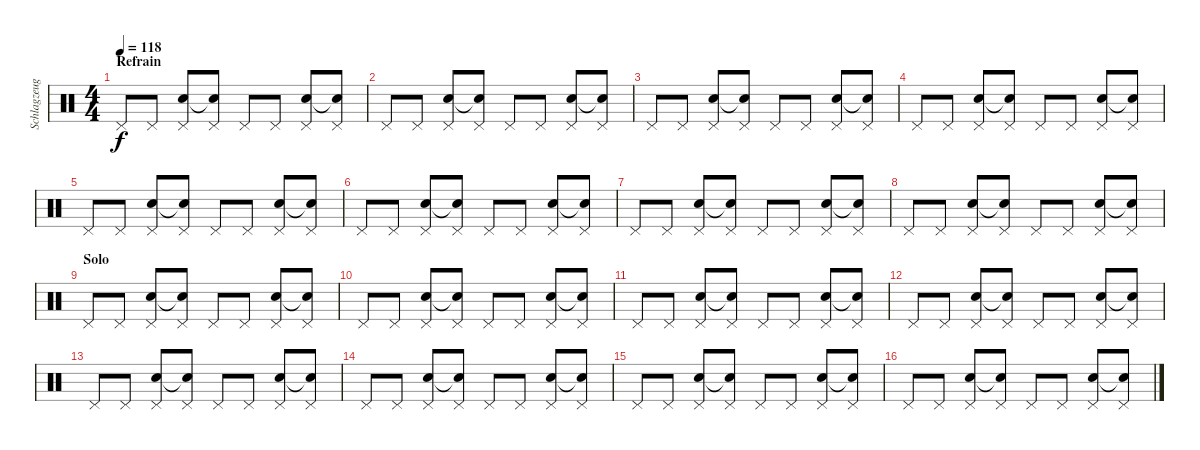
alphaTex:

\track ("Schlagzeug" "Schlagzeug") {instrument percussion}
\staff {score}
\articulation defaults
\ts (4 4)
\section ("" "Refrain")
\tempo 118
\clef neutral
\ks c "Pedal Hi-Hat (hit)".8{dy f} "Pedal Hi-Hat (hit)".8
("Pedal Hi-Hat (hit)" "Snare (hit) 2").8 ("Pedal Hi-Hat (hit)" "Snare (hit) 2"{t}).8 "Pedal Hi-Hat (hit)".8 "Pedal Hi-Hat (hit)".8 ("Pedal Hi-Hat (hit)" "Snare (hit) 2").8 ("Pedal Hi-Hat (hit)" "Snare (hit)"{t}).8 |
"Pedal Hi-Hat (hit)".8 "Pedal Hi-Hat (hit)".8 ("Pedal Hi-Hat (hit)" "Snare (hit) 2").8 ("Pedal Hi-Hat (hit)" "Snare (hit) 2"{t}).8 "Pedal Hi-Hat (hit)".8 "Pedal Hi-Hat (hit)".8 ("Pedal Hi-Hat (hit)" "Snare (hit) 2").8 ("Pedal Hi-Hat (hit)" "Snare (hit)"{t}).8 |
"Pedal Hi-Hat (hit)".8 "Pedal Hi-Hat (hit)".8 ("Pedal Hi-Hat (hit)" "Snare (hit) 2").8 ("Pedal Hi-Hat (hit)" "Snare (hit) 2"{t}).8 "Pedal Hi-Hat (hit)".8 "Pedal Hi-Hat (hit)".8 ("Pedal Hi-Hat (hit)" "Snare (hit) 2").8 ("Pedal Hi-Hat (hit)" "Snare (hit)"{t}).8 |
"Pedal Hi-Hat (hit)".8 "Pedal Hi-Hat (hit)".8 ("Pedal Hi-Hat (hit)" "Snare (hit) 2").8 ("Pedal Hi-Hat (hit)" "Snare (hit) 2"{t}).8 "Pedal Hi-Hat (hit)".8 "Pedal Hi-Hat (hit)".8 ("Pedal Hi-Hat (hit)" "Snare (hit) 2").8 ("Pedal Hi-Hat (hit)" "Snare (hit)"{t}).8 |
"Pedal Hi-Hat (hit)".8 "Pedal Hi-Hat (hit)".8 ("Pedal Hi-Hat (hit)" "Snare (hit) 2").8 ("Pedal Hi-Hat (hit)" "Snare (hit) 2"{t}).8 "Pedal Hi-Hat (hit)".8 "Pedal Hi-Hat (hit)".8 ("Pedal Hi-Hat (hit)" "Snare (hit) 2").8 ("Pedal Hi-Hat (hit)" "Snare (hit)"{t}).8 |
"Pedal Hi-Hat (hit)".8 "Pedal Hi-Hat (hit)".8 ("Pedal Hi-Hat (hit)" "Snare (hit) 2").8 ("Pedal Hi-Hat (hit)" "Snare (hit) 2"{t}).8 "Pedal Hi-Hat (hit)".8 "Pedal Hi-Hat (hit)".8 ("Pedal Hi-Hat (hit)" "Snare (hit) 2").8 ("Pedal Hi-Hat (hit)" "Snare (hit)"{t}).8 |
"Pedal Hi-Hat (hit)".8 "Pedal Hi-Hat (hit)".8 ("Pedal Hi-Hat (hit)" "Snare (hit) 2").8 ("Pedal Hi-Hat (hit)" "Snare (hit) 2"{t}).8 "Pedal Hi-Hat (hit)".8 "Pedal Hi-Hat (hit)".8 ("Pedal Hi-Hat (hit)" "Snare (hit) 2").8 ("Pedal Hi-Hat (hit)" "Snare (hit)"{t}).8 |
"Pedal Hi-Hat (hit)".8 "Pedal Hi-Hat (hit)".8 ("Pedal Hi-Hat (hit)" "Snare (hit) 2").8 ("Pedal Hi-Hat (hit)" "Snare (hit) 2"{t}).8 "Pedal Hi-Hat (hit)".8 "Pedal Hi-Hat (hit)".8 ("Pedal Hi-Hat (hit)" "Snare (hit) 2").8 ("Pedal Hi-Hat (hit)" "Snare (hit)"{t}).8 |
\section ("" "Solo")
"Pedal Hi-Hat (hit)".8 "Pedal Hi-Hat (hit)".8 ("Pedal Hi-Hat (hit)" "Snare (hit) 2").8 ("Pedal Hi-Hat (hit)" "Snare (hit) 2"{t}).8 "Pedal Hi-Hat (hit)".8 "Pedal Hi-Hat (hit)".8 ("Pedal Hi-Hat (hit)" "Snare (hit) 2").8 ("Pedal Hi-Hat (hit)" "Snare (hit)"{t}).8 |
"Pedal Hi-Hat (hit)".8 "Pedal Hi-Hat (hit)".8 ("Pedal Hi-Hat (hit)" "Snare (hit) 2").8 ("Pedal Hi-Hat (hit)" "Snare (hit) 2"{t}).8 "Pedal Hi-Hat (hit)".8 "Pedal Hi-Hat (hit)".8 ("Pedal Hi-Hat (hit)" "Snare (hit) 2").8 ("Pedal Hi-Hat (hit)" "Snare (hit)"{t}).8 |
"Pedal Hi-Hat (hit)".8 "Pedal Hi-Hat (hit)".8 ("Pedal Hi-Hat (hit)" "Snare (hit) 2").8 ("Pedal Hi-Hat (hit)" "Snare (hit) 2"{t}).8 "Pedal Hi-Hat (hit)".8 "Pedal Hi-Hat (hit)".8 ("Pedal Hi-Hat (hit)" "Snare (hit) 2").8 ("Pedal Hi-Hat (hit)" "Snare (hit)"{t}).8 |
"Pedal Hi-Hat (hit)".8 "Pedal Hi-Hat (hit)".8 ("Pedal Hi-Hat (hit)" "Snare (hit) 2").8 ("Pedal Hi-Hat (hit)" "Snare (hit) 2"{t}).8 "Pedal Hi-Hat (hit)".8 "Pedal Hi-Hat (hit)".8 ("Pedal Hi-Hat (hit)" "Snare (hit) 2").8 ("Pedal Hi-Hat (hit)" "Snare (hit)"{t}).8 |
"Pedal Hi-Hat (hit)".8 "Pedal Hi-Hat (hit)".8 ("Pedal Hi-Hat (hit)" "Snare (hit) 2").8 ("Pedal Hi-Hat (hit)" "Snare (hit) 2"{t}).8 "Pedal Hi-Hat (hit)".8 "Pedal Hi-Hat (hit)".8 ("Pedal Hi-Hat (hit)" "Snare (hit) 2").8 ("Pedal Hi-Hat (hit)" "Snare (hit)"{t}).8 |
"Pedal Hi-Hat (hit)".8 "Pedal Hi-Hat (hit)".8 ("Pedal Hi-Hat (hit)" "Snare (hit) 2").8 ("Pedal Hi-Hat (hit)" "Snare (hit) 2"{t}).8 "Pedal Hi-Hat (hit)".8 "Pedal Hi-Hat (hit)".8 ("Pedal Hi-Hat (hit)" "Snare (hit) 2").8 ("Pedal Hi-Hat (hit)" "Snare (hit)"{t}).8 |
"Pedal Hi-Hat (hit)".8 "Pedal Hi-Hat (hit)".8 ("Pedal Hi-Hat (hit)" "Snare (hit) 2").8 ("Pedal Hi-Hat (hit)" "Snare (hit) 2"{t}).8 "Pedal Hi-Hat (hit)".8 "Pedal Hi-Hat (hit)".8 ("Pedal Hi-Hat (hit)" "Snare (hit) 2").8 ("Pedal Hi-Hat (hit)" "Snare (hit)"{t}).8 |
"Pedal Hi-Hat (hit)".8 "Pedal Hi-Hat (hit)".8 ("Pedal Hi-Hat (hit)" "Snare (hit) 2").8 ("Pedal Hi-Hat (hit)" "Snare (hit) 2"{t}).8 "Pedal Hi-Hat (hit)".8 "Pedal Hi-Hat (hit)".8 ("Pedal Hi-Hat (hit)" "Snare (hit) 2").8 ("Pedal Hi-Hat (hit)" "Snare (hit)"{t}).8
